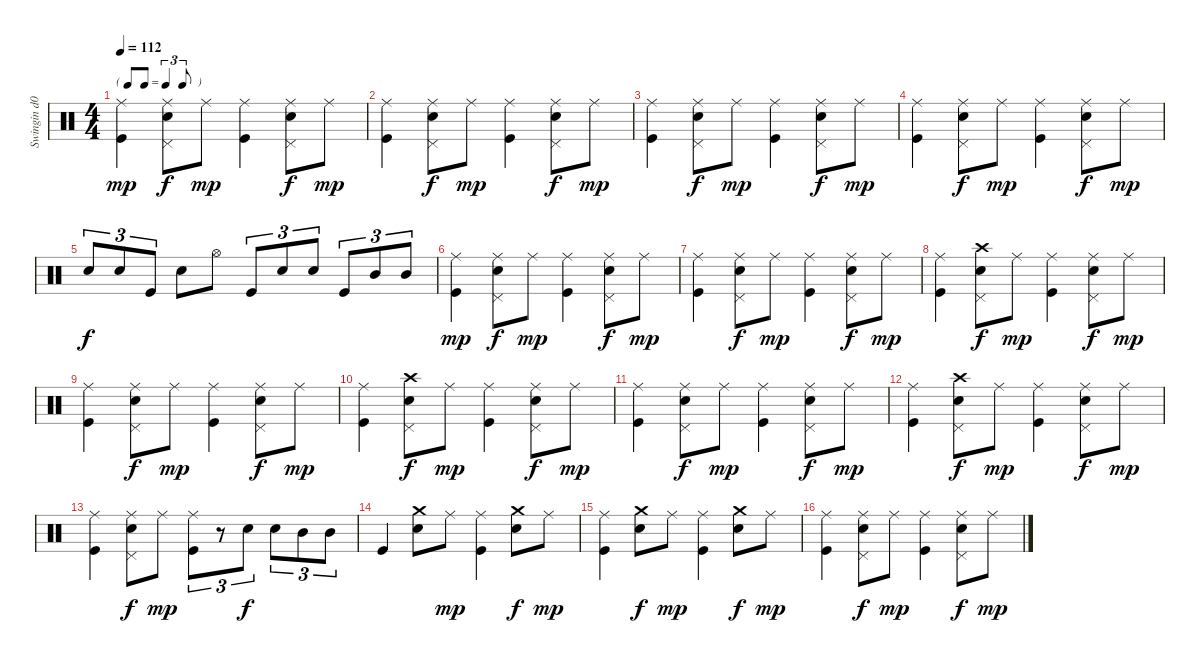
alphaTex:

\track ("Swingin d00d" "Swingin d0") {instrument percussion}
\staff {score}
\articulation defaults
\ts (4 4)
\tf triplet8th
\tempo 112
\clef neutral
\ks c
("Ride (middle)" "Kick (hit)").4{dy mp} ("Ride (middle)" "Pedal Hi-Hat (hit)" "Electric Snare (hit)").8{dy f} "Ride (middle)".8{dy mp} ("Ride (middle)" "Kick (hit)").4 ("Ride (middle)" "Pedal Hi-Hat (hit)" "Electric Snare (hit)").8{dy f} "Ride (middle)".8{dy mp} |
("Ride (middle)" "Kick (hit)").4 ("Ride (middle)" "Pedal Hi-Hat (hit)" "Electric Snare (hit)").8{dy f} "Ride (middle)".8{dy mp} ("Ride (middle)" "Kick (hit)").4 ("Ride (middle)" "Pedal Hi-Hat (hit)" "Electric Snare (hit)").8{dy f} "Ride (middle)".8{dy mp} |
("Ride (middle)" "Kick (hit)").4 ("Ride (middle)" "Pedal Hi-Hat (hit)" "Electric Snare (hit)").8{dy f} "Ride (middle)".8{dy mp} ("Ride (middle)" "Kick (hit)").4 ("Ride (middle)" "Pedal Hi-Hat (hit)" "Electric Snare (hit)").8{dy f} "Ride (middle)".8{dy mp} |
("Ride (middle)" "Kick (hit)").4 ("Ride (middle)" "Pedal Hi-Hat (hit)" "Electric Snare (hit)").8{dy f} "Ride (middle)".8{dy mp} ("Ride (middle)" "Kick (hit)").4 ("Ride (middle)" "Pedal Hi-Hat (hit)" "Electric Snare (hit)").8{dy f} "Ride (middle)".8{dy mp} |
"Electric Snare (hit)".8{tu (3 2) dy f} "Electric Snare (hit)".8{tu (3 2)} "Kick (hit)".8{tu (3 2)} "Electric Snare (hit)".8 "Hi-Hat (open)".8 "Kick (hit)".8{tu (3 2)} "Electric Snare (hit)".8{tu (3 2)} "Electric Snare (hit)".8{tu (3 2)} "Kick (hit)".8{tu (3 2)} "Mid Tom (hit)".8{tu (3 2)} "Mid Tom (hit)".8{tu (3 2)} |
("Ride (middle)" "Kick (hit)").4{dy mp} ("Ride (middle)" "Pedal Hi-Hat (hit)" "Electric Snare (hit)").8{dy f} "Ride (middle)".8{dy mp} ("Ride (middle)" "Kick (hit)").4 ("Ride (middle)" "Pedal Hi-Hat (hit)" "Electric Snare (hit)").8{dy f} "Ride (middle)".8{dy mp} |
("Ride (middle)" "Kick (hit)").4 ("Ride (middle)" "Pedal Hi-Hat (hit)" "Electric Snare (hit)").8{dy f} "Ride (middle)".8{dy mp} ("Ride (middle)" "Kick (hit)").4 ("Ride (middle)" "Pedal Hi-Hat (hit)" "Electric Snare (hit)").8{dy f} "Ride (middle)".8{dy mp} |
("Ride (middle)" "Kick (hit)").4 ("Crash high (hit)" "Pedal Hi-Hat (hit)" "Electric Snare (hit)").8{dy f} "Ride (middle)".8{dy mp} ("Ride (middle)" "Kick (hit)").4 ("Ride (middle)" "Pedal Hi-Hat (hit)" "Electric Snare (hit)").8{dy f} "Ride (middle)".8{dy mp} |
("Ride (middle)" "Kick (hit)").4 ("Ride (middle)" "Pedal Hi-Hat (hit)" "Electric Snare (hit)").8{dy f} "Ride (middle)".8{dy mp} ("Ride (middle)" "Kick (hit)").4 ("Ride (middle)" "Pedal Hi-Hat (hit)" "Electric Snare (hit)").8{dy f} "Ride (middle)".8{dy mp} |
("Ride (middle)" "Kick (hit)").4 ("Crash high (hit)" "Pedal Hi-Hat (hit)" "Electric Snare (hit)").8{dy f} "Ride (middle)".8{dy mp} ("Ride (middle)" "Kick (hit)").4 ("Ride (middle)" "Pedal Hi-Hat (hit)" "Electric Snare (hit)").8{dy f} "Ride (middle)".8{dy mp} |
("Ride (middle)" "Kick (hit)").4 ("Ride (middle)" "Pedal Hi-Hat (hit)" "Electric Snare (hit)").8{dy f} "Ride (middle)".8{dy mp} ("Ride (middle)" "Kick (hit)").4 ("Ride (middle)" "Pedal Hi-Hat (hit)" "Electric Snare (hit)").8{dy f} "Ride (middle)".8{dy mp} |
("Ride (middle)" "Kick (hit)").4 ("Crash high (hit)" "Pedal Hi-Hat (hit)" "Electric Snare (hit)").8{dy f} "Ride (middle)".8{dy mp} ("Ride (middle)" "Kick (hit)").4 ("Ride (middle)" "Pedal Hi-Hat (hit)" "Electric Snare (hit)").8{dy f} "Ride (middle)".8{dy mp} |
("Ride (middle)" "Kick (hit)").4 ("Ride (middle)" "Pedal Hi-Hat (hit)" "Electric Snare (hit)").8{dy f} "Ride (middle)".8{dy mp} ("Ride (middle)" "Kick (hit)").8{tu (3 2)} r.8{tu (3 2)} "Electric Snare (hit)".8{tu (3 2) dy f} "Electric Snare (hit)".8{tu (3 2)} "Mid Tom (hit)".8{tu (3 2)} "Mid Tom (hit)".8{tu (3 2)} |
"Kick (hit)".4 ("Crash medium (hit)" "Electric Snare (hit)").8 "Ride (middle)".8{dy mp} ("Ride (middle)" "Kick (hit)").4 ("Crash medium (hit)" "Electric Snare (hit)").8{dy f} "Ride (middle)".8{dy mp} |
("Ride (middle)" "Kick (hit)").4 ("Crash medium (hit)" "Electric Snare (hit)").8{dy f} "Ride (middle)".8{dy mp} ("Ride (middle)" "Kick (hit)").4 ("Crash medium (hit)" "Electric Snare (hit)").8{dy f} "Ride (middle)".8{dy mp} |
("Ride (middle)" "Kick (hit)").4 ("Ride (middle)" "Pedal Hi-Hat (hit)" "Electric Snare (hit)").8{dy f} "Ride (middle)".8{dy mp} ("Ride (middle)" "Kick (hit)").4 ("Ride (middle)" "Pedal Hi-Hat (hit)" "Electric Snare (hit)").8{dy f} "Ride (middle)".8{dy mp}
